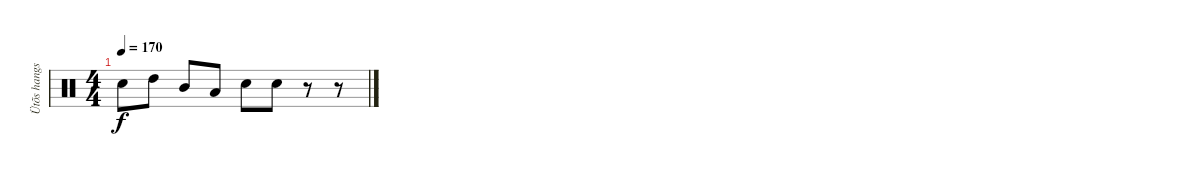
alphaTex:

\track ("Ütõs hangszer" "Ütõs hangs") {instrument percussion}
\staff {score}
\articulation defaults
\ts (4 4)
\tempo 170
\clef neutral
\ks c "Snare (hit) 2".8{dy f} "High Tom (hit)".8 "Mid Tom (hit)".8 "Low Tom (hit)".8 "Snare (hit) 2".8 "Snare (hit) 2".8
r.8 r.8
